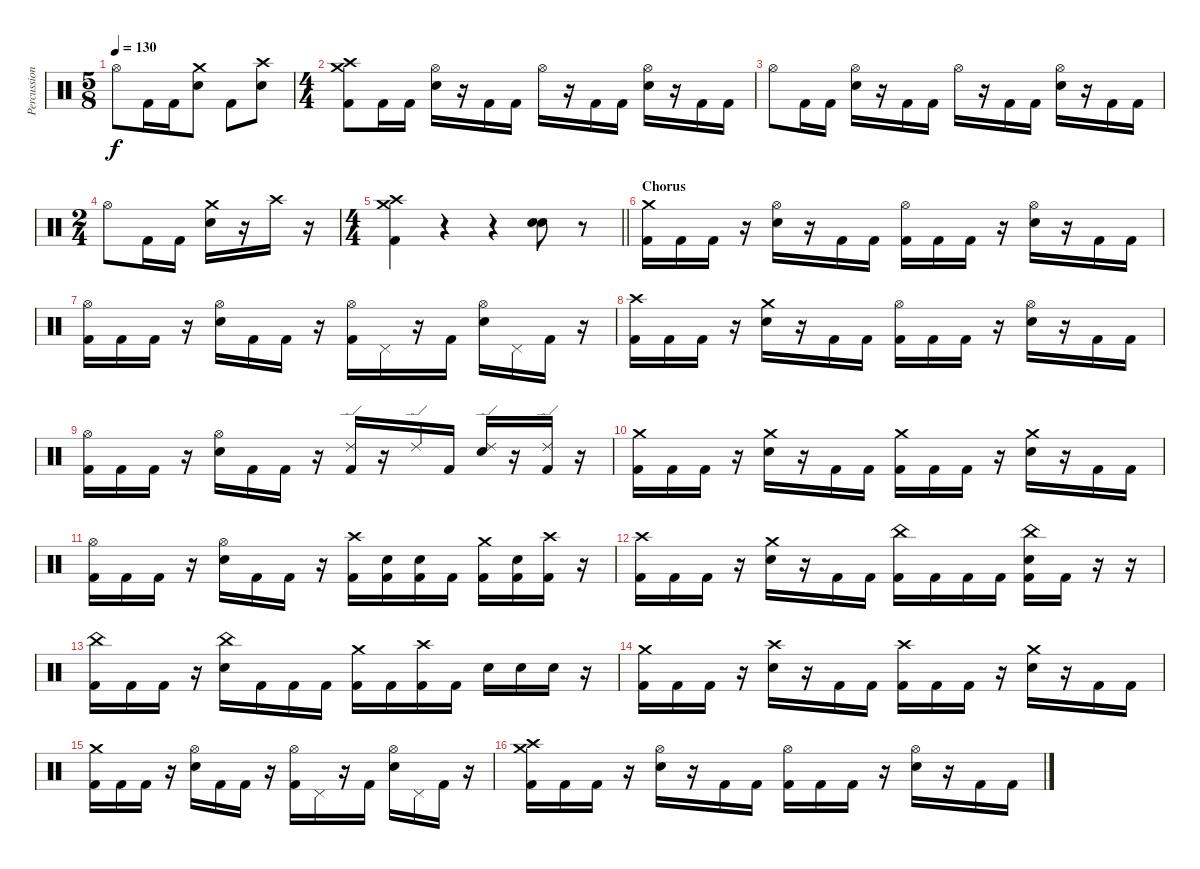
\track ("Percussion" "Percussion") {instrument percussion}
\staff {score}
\articulation defaults
\ts (5 8)
\tempo 130
\clef neutral
\ks c "Hi-Hat (open)".8{dy f} "Kick (hit) 2".16 "Kick (hit) 2".16
("Crash medium (hit)" "Electric Snare (hit)").8 "Kick (hit) 2".8 ("Crash high (hit)" "Electric Snare (hit)").8 |
\ts (4 4)
("Crash high (hit)" "Crash medium (hit)" "Kick (hit) 2").8 "Kick (hit) 2".16 "Kick (hit) 2".16 ("Hi-Hat (open)" "Electric Snare (hit)").16 r.16 "Kick (hit) 2".16 "Kick (hit) 2".16 "Hi-Hat (open)".16 r.16 "Kick (hit) 2".16 "Kick (hit) 2".16 ("Hi-Hat (open)" "Electric Snare (hit)").16 r.16 "Kick (hit) 2".16 "Kick (hit) 2".16 |
"Hi-Hat (open)".8 "Kick (hit) 2".16 "Kick (hit) 2".16 ("Hi-Hat (open)" "Electric Snare (hit)").16 r.16 "Kick (hit) 2".16 "Kick (hit) 2".16 "Hi-Hat (open)".16 r.16 "Kick (hit) 2".16 "Kick (hit) 2".16 ("Hi-Hat (open)" "Electric Snare (hit)").16 r.16 "Kick (hit) 2".16 "Kick (hit) 2".16 |
\ts (2 4)
"Hi-Hat (open)".8 "Kick (hit) 2".16 "Kick (hit) 2".16 ("Crash medium (hit)" "Electric Snare (hit)").16 r.16 "Crash high (hit)".16 r.16 |
\ts (4 4)
\barLineRight lightlight
("Crash high (hit)" "Crash medium (hit)" "Kick (hit) 2").4 r.4 r.4 ("Electric Snare (hit)" "Electric Snare (hit)").8{bd 480} r.8 |
\section ("" "Chorus")
("Crash medium (hit)" "Kick (hit) 2").16 "Kick (hit) 2".16 "Kick (hit) 2".16 r.16 ("Hi-Hat (open)" "Electric Snare (hit)").16 r.16 "Kick (hit) 2".16 "Kick (hit) 2".16 ("Hi-Hat (open)" "Kick (hit) 2").16 "Kick (hit) 2".16 "Kick (hit) 2".16 r.16 ("Hi-Hat (open)" "Electric Snare (hit)").16 r.16 "Kick (hit) 2".16 "Kick (hit) 2".16 |
("Hi-Hat (open)" "Kick (hit) 2").16 "Kick (hit) 2".16 "Kick (hit) 2".16 r.16 ("Hi-Hat (open)" "Electric Snare (hit)").16 "Kick (hit) 2".16 "Kick (hit) 2".16 r.16 ("Hi-Hat (open)" "Kick (hit) 2").16 "Pedal Hi-Hat (hit)".16 r.16 "Kick (hit) 2".16 ("Hi-Hat (open)" "Electric Snare (hit)").16 "Pedal Hi-Hat (hit)".16 "Kick (hit) 2".16 r.16 |
("Crash high (hit)" "Kick (hit) 2").16 "Kick (hit) 2".16 "Kick (hit) 2".16 r.16 ("Crash medium (hit)" "Electric Snare (hit)").16 r.16 "Kick (hit) 2".16 "Kick (hit) 2".16 ("Hi-Hat (open)" "Kick (hit) 2").16 "Kick (hit) 2".16 "Kick (hit) 2".16 r.16 ("Hi-Hat (open)" "Electric Snare (hit)").16 r.16 "Kick (hit) 2".16 "Kick (hit) 2".16 |
("Hi-Hat (open)" "Kick (hit) 2").16 "Kick (hit) 2".16 "Kick (hit) 2".16 r.16 ("Hi-Hat (open)" "Electric Snare (hit)").16 "Kick (hit) 2".16 "Kick (hit) 2".16 r.16 ("Ride (edge) 2" "Kick (hit) 2").16 r.16 "Ride (edge) 2".16 "Kick (hit) 2".16 ("Ride (edge) 2" "Electric Snare (hit)").16 r.16 ("Ride (edge) 2" "Kick (hit) 2").16 r.16 |
("Crash medium (hit)" "Kick (hit) 2").16 "Kick (hit) 2".16 "Kick (hit) 2".16 r.16 ("Crash medium (hit)" "Electric Snare (hit)").16 r.16 "Kick (hit) 2".16 "Kick (hit) 2".16 ("Crash medium (hit)" "Kick (hit) 2").16 "Kick (hit) 2".16 "Kick (hit) 2".16 r.16 ("Crash medium (hit)" "Electric Snare (hit)").16 r.16 "Kick (hit) 2".16 "Kick (hit) 2".16 |
("Hi-Hat (open)" "Kick (hit) 2").16 "Kick (hit) 2".16 "Kick (hit) 2".16 r.16 ("Hi-Hat (open)" "Electric Snare (hit)").16 "Kick (hit) 2".16 "Kick (hit) 2".16 r.16 ("Crash high (hit)" "Kick (hit) 2").16 ("Electric Snare (hit)" "Kick (hit) 2").16 ("Electric Snare (hit)" "Kick (hit) 2").16 "Kick (hit) 2".16 ("Crash medium (hit)" "Kick (hit) 2").16 ("Electric Snare (hit)" "Kick (hit) 2").16 ("Crash high (hit)" "Kick (hit) 2").16 r.16 |
("Crash high (hit)" "Kick (hit) 2").16 "Kick (hit) 2".16 "Kick (hit) 2".16 r.16 ("Crash medium (hit)" "Electric Snare (hit)").16 r.16 "Kick (hit) 2".16 "Kick (hit) 2".16 ("China (hit)" "Kick (hit) 2").16 "Kick (hit) 2".16 "Kick (hit) 2".16 "Kick (hit) 2".16 ("China (hit)" "Electric Snare (hit)" "Kick (hit) 2").16 "Kick (hit) 2".16 r.16 r.16 |
("China (hit)" "Kick (hit) 2").16 "Kick (hit) 2".16 "Kick (hit) 2".16 r.16 ("China (hit)" "Electric Snare (hit)").16 "Kick (hit) 2".16 "Kick (hit) 2".16 "Kick (hit) 2".16 ("Crash medium (hit)" "Kick (hit) 2").16 "Kick (hit) 2".16 ("Crash high (hit)" "Kick (hit) 2").16 "Kick (hit) 2".16 "Electric Snare (hit)".16 "Electric Snare (hit)".16 "Electric Snare (hit)".16 r.16 |
("Crash medium (hit)" "Kick (hit) 2").16 "Kick (hit) 2".16 "Kick (hit) 2".16 r.16 ("Crash high (hit)" "Electric Snare (hit)").16 r.16 "Kick (hit) 2".16 "Kick (hit) 2".16 ("Crash high (hit)" "Kick (hit) 2").16 "Kick (hit) 2".16 "Kick (hit) 2".16 r.16 ("Crash medium (hit)" "Electric Snare (hit)").16 r.16 "Kick (hit) 2".16 "Kick (hit) 2".16 |
("Crash medium (hit)" "Kick (hit) 2").16 "Kick (hit) 2".16 "Kick (hit) 2".16 r.16 ("Hi-Hat (open)" "Electric Snare (hit)").16 "Kick (hit) 2".16 "Kick (hit) 2".16 r.16 ("Hi-Hat (open)" "Kick (hit) 2").16 "Pedal Hi-Hat (hit)".16 r.16 "Kick (hit) 2".16 ("Hi-Hat (open)" "Electric Snare (hit)").16 "Pedal Hi-Hat (hit)".16 "Kick (hit) 2".16 r.16 |
("Crash medium (hit)" "Crash high (hit)" "Kick (hit) 2").16 "Kick (hit) 2".16 "Kick (hit) 2".16 r.16 ("Hi-Hat (open)" "Electric Snare (hit)").16 r.16 "Kick (hit) 2".16 "Kick (hit) 2".16 ("Hi-Hat (open)" "Kick (hit) 2").16 "Kick (hit) 2".16 "Kick (hit) 2".16 r.16 ("Hi-Hat (open)" "Electric Snare (hit)").16 r.16 "Kick (hit) 2".16 "Kick (hit) 2".16
